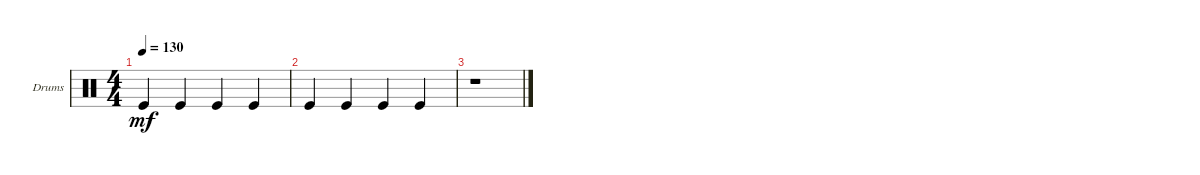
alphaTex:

\bracketExtendMode groupsimilarinstruments
\firstSystemTrackNameOrientation horizontal
\otherSystemsTrackNameOrientation horizontal
\chordDiagramsInScore
\track ("Drumkit" "Drums") {instrument percussion}
\staff {score}
\articulation defaults
\ts (4 4)
\tempo 130
\clef neutral
\ks c "Kick (hit)".4{dy mf} "Kick (hit)".4 "Kick (hit)".4 "Kick (hit)".4
|
"Kick (hit)".4 "Kick (hit)".4 "Kick (hit)".4 "Kick (hit)".4 |
r.1
